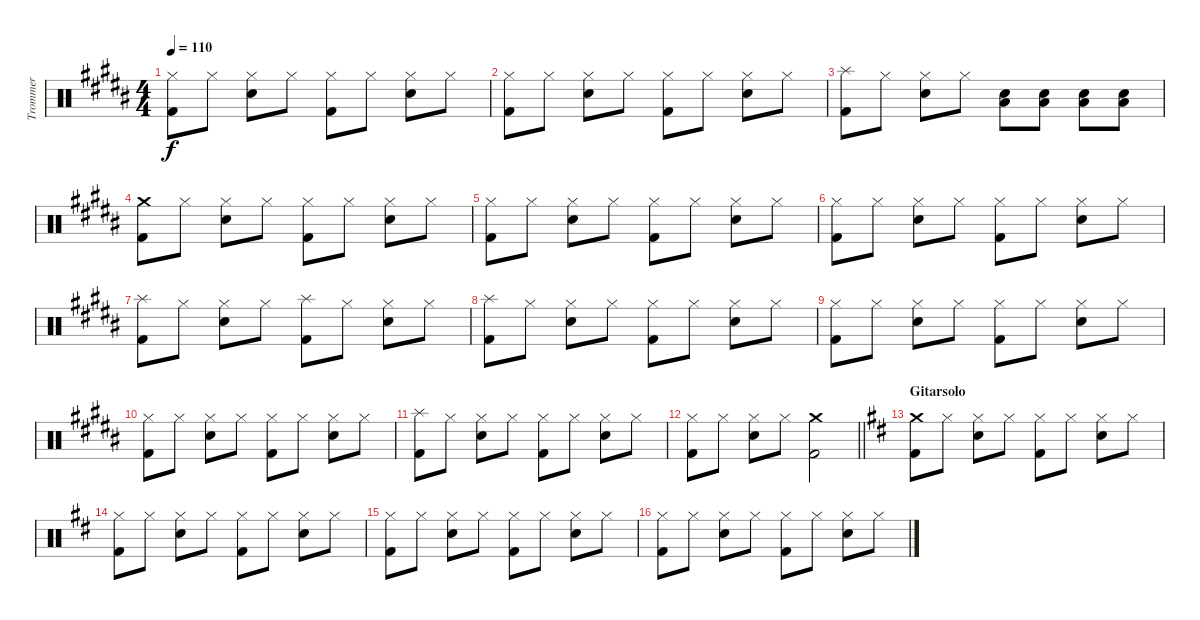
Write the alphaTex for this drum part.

\track ("Trommer" "Trommer") {instrument percussion}
\staff {score}
\articulation defaults
\ts (4 4)
\tempo 110
\clef neutral
\ks b
("Hi-Hat (closed)" "Kick (hit) 2").8{dy f} "Hi-Hat (closed)".8 ("Hi-Hat (closed)" "Electric Snare (hit)").8 "Hi-Hat (closed)".8 ("Hi-Hat (closed)" "Kick (hit) 2").8 "Hi-Hat (closed)".8 ("Hi-Hat (closed)" "Electric Snare (hit)").8 "Hi-Hat (closed)".8 |
("Hi-Hat (closed)" "Kick (hit) 2").8 "Hi-Hat (closed)".8 ("Hi-Hat (closed)" "Electric Snare (hit)").8 "Hi-Hat (closed)".8 ("Hi-Hat (closed)" "Kick (hit) 2").8 "Hi-Hat (closed)".8 ("Hi-Hat (closed)" "Electric Snare (hit)").8 "Hi-Hat (closed)".8 |
("Splash (hit)" "Kick (hit) 2").8 "Hi-Hat (closed)".8 ("Hi-Hat (closed)" "Electric Snare (hit)").8 "Hi-Hat (closed)".8 ("Electric Snare (hit)" "Low Tom (hit)").8 ("Electric Snare (hit)" "Low Tom (hit)").8 ("Electric Snare (hit)" "Low Tom (hit)").8 ("Electric Snare (hit)" "Low Tom (hit)").8 |
("Crash medium (hit)" "Kick (hit) 2").8 "Hi-Hat (closed)".8 ("Hi-Hat (closed)" "Electric Snare (hit)").8 "Hi-Hat (closed)".8 ("Hi-Hat (closed)" "Kick (hit) 2").8 "Hi-Hat (closed)".8 ("Hi-Hat (closed)" "Electric Snare (hit)").8 "Hi-Hat (closed)".8 |
("Hi-Hat (closed)" "Kick (hit) 2").8 "Hi-Hat (closed)".8 ("Hi-Hat (closed)" "Electric Snare (hit)").8 "Hi-Hat (closed)".8 ("Hi-Hat (closed)" "Kick (hit) 2").8 "Hi-Hat (closed)".8 ("Hi-Hat (closed)" "Electric Snare (hit)").8 "Hi-Hat (closed)".8 |
("Hi-Hat (closed)" "Kick (hit) 2").8 "Hi-Hat (closed)".8 ("Hi-Hat (closed)" "Electric Snare (hit)").8 "Hi-Hat (closed)".8 ("Hi-Hat (closed)" "Kick (hit) 2").8 "Hi-Hat (closed)".8 ("Hi-Hat (closed)" "Electric Snare (hit)").8 "Hi-Hat (closed)".8 |
("Splash (hit)" "Kick (hit) 2").8 "Hi-Hat (closed)".8 ("Hi-Hat (closed)" "Electric Snare (hit)").8 "Hi-Hat (closed)".8 ("Splash (hit)" "Kick (hit) 2").8 "Hi-Hat (closed)".8 ("Hi-Hat (closed)" "Electric Snare (hit)").8 "Hi-Hat (closed)".8 |
("Splash (hit)" "Kick (hit) 2").8 "Hi-Hat (closed)".8 ("Hi-Hat (closed)" "Electric Snare (hit)").8 "Hi-Hat (closed)".8 ("Hi-Hat (closed)" "Kick (hit) 2").8 "Hi-Hat (closed)".8 ("Hi-Hat (closed)" "Electric Snare (hit)").8 "Hi-Hat (closed)".8 |
("Hi-Hat (closed)" "Kick (hit) 2").8 "Hi-Hat (closed)".8 ("Hi-Hat (closed)" "Electric Snare (hit)").8 "Hi-Hat (closed)".8 ("Hi-Hat (closed)" "Kick (hit) 2").8 "Hi-Hat (closed)".8 ("Hi-Hat (closed)" "Electric Snare (hit)").8 "Hi-Hat (closed)".8 |
("Hi-Hat (closed)" "Kick (hit) 2").8 "Hi-Hat (closed)".8 ("Hi-Hat (closed)" "Electric Snare (hit)").8 "Hi-Hat (closed)".8 ("Hi-Hat (closed)" "Kick (hit) 2").8 "Hi-Hat (closed)".8 ("Hi-Hat (closed)" "Electric Snare (hit)").8 "Hi-Hat (closed)".8 |
("Splash (hit)" "Kick (hit) 2").8 "Hi-Hat (closed)".8 ("Hi-Hat (closed)" "Electric Snare (hit)").8 "Hi-Hat (closed)".8 ("Hi-Hat (closed)" "Kick (hit) 2").8 "Hi-Hat (closed)".8 ("Hi-Hat (closed)" "Electric Snare (hit)").8 "Hi-Hat (closed)".8 |
\barLineRight lightlight
("Hi-Hat (closed)" "Kick (hit) 2").8 "Hi-Hat (closed)".8 ("Hi-Hat (closed)" "Electric Snare (hit)").8 "Hi-Hat (closed)".8 ("Crash medium (hit)" "Kick (hit) 2").2 |
\section ("" "Gitarsolo")
\ks d
("Crash medium (hit)" "Kick (hit) 2").8 "Hi-Hat (closed)".8 ("Hi-Hat (closed)" "Electric Snare (hit)").8 "Hi-Hat (closed)".8 ("Hi-Hat (closed)" "Kick (hit) 2").8 "Hi-Hat (closed)".8 ("Hi-Hat (closed)" "Electric Snare (hit)").8 "Hi-Hat (closed)".8 |
("Hi-Hat (closed)" "Kick (hit) 2").8 "Hi-Hat (closed)".8 ("Hi-Hat (closed)" "Electric Snare (hit)").8 "Hi-Hat (closed)".8 ("Hi-Hat (closed)" "Kick (hit) 2").8 "Hi-Hat (closed)".8 ("Hi-Hat (closed)" "Electric Snare (hit)").8 "Hi-Hat (closed)".8 |
("Hi-Hat (closed)" "Kick (hit) 2").8 "Hi-Hat (closed)".8 ("Hi-Hat (closed)" "Electric Snare (hit)").8 "Hi-Hat (closed)".8 ("Hi-Hat (closed)" "Kick (hit) 2").8 "Hi-Hat (closed)".8 ("Hi-Hat (closed)" "Electric Snare (hit)").8 "Hi-Hat (closed)".8 |
("Hi-Hat (closed)" "Kick (hit) 2").8 "Hi-Hat (closed)".8 ("Hi-Hat (closed)" "Electric Snare (hit)").8 "Hi-Hat (closed)".8 ("Hi-Hat (closed)" "Kick (hit) 2").8 "Hi-Hat (closed)".8 ("Hi-Hat (closed)" "Electric Snare (hit)").8 "Hi-Hat (closed)".8
